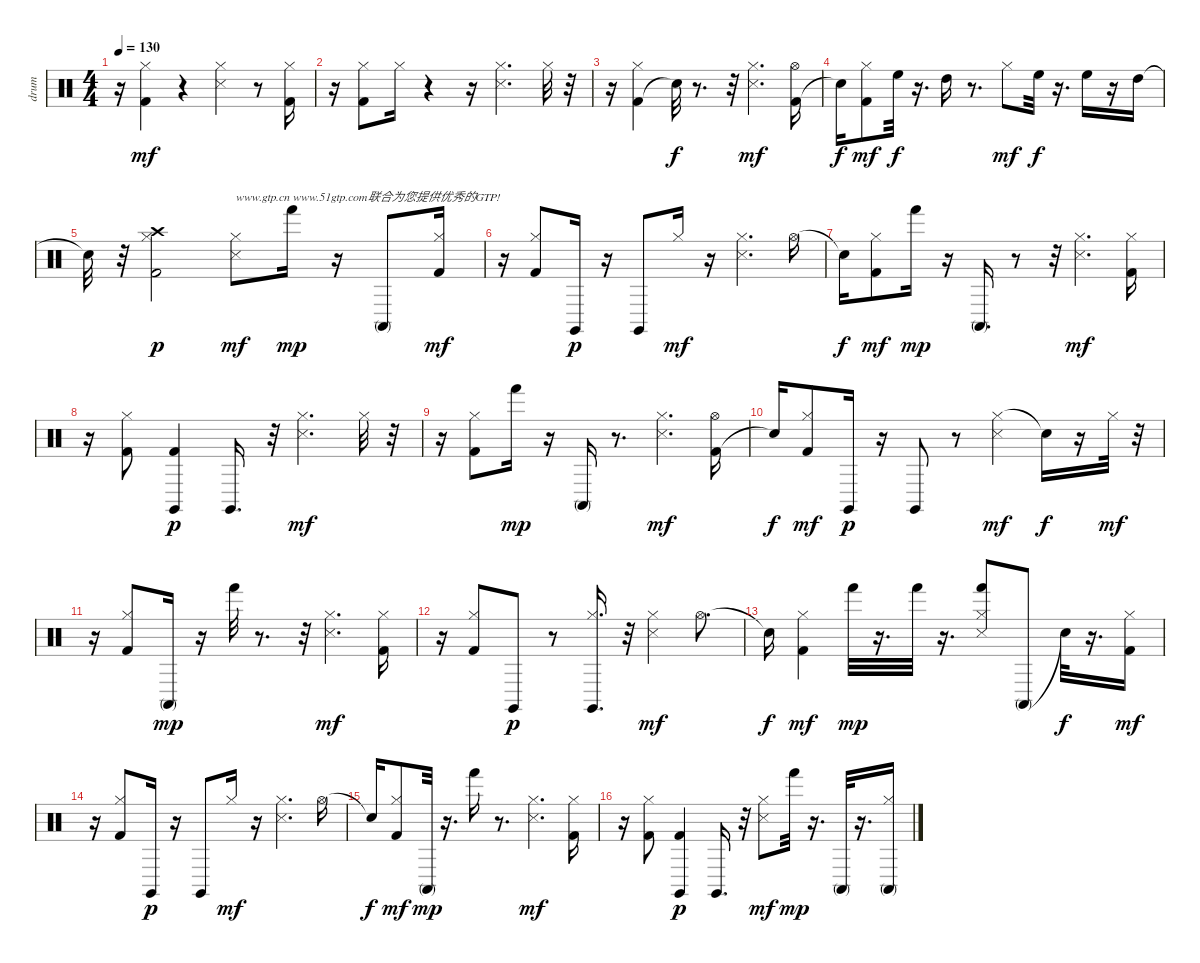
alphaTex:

\track ("drum" "drum") {instrument percussion}
\staff {score}
\articulation defaults
\ts (4 4)
\tempo 130
\clef neutral
\ks c
r.16{dy f} ("Kick (hit) 2" "Hi-Hat (closed)").4{dy mf} r.4 ("Hi-Hat (closed)" "Snare (side stick) 3").4 r.8 ("Kick (hit) 2" "Hi-Hat (closed)").16 |
r.16 ("Kick (hit) 2" "Hi-Hat (closed)").8 "Hi-Hat (closed)".16 r.4 r.16 ("Hi-Hat (closed)" "Snare (side stick) 3").4{d} "Hi-Hat (closed)".32 r.32 |
r.16 ("Kick (hit) 2" "Hi-Hat (closed)").4 "Snare (hit)"{t}.32{dy f} r.8{d} r.32 ("Hi-Hat (closed)" "Snare (side stick) 3").4{d dy mf} ("Kick (hit) 2" "Hi-Hat (open)").16 |
"Snare (hit)"{t}.16{dy f} ("Kick (hit) 2" "Hi-Hat (closed)").8{dy mf} "High Floor Tom (hit)".32{dy f} r.16{d} "High Tom (hit)".16 r.8{d} "Hi-Hat (closed)".8{dy mf} "High Floor Tom (hit)".32{dy f} r.16{d} "High Floor Tom (hit)".16 r.16 "High Tom (hit)".16 |
"Snare (hit)"{t}.32 r.32 ("Kick (hit) 2" "Hi-Hat (closed)" "Crash high (hit)").2{dy p} ("Hi-Hat (closed)" "Snare (side stick) 3").8{txt "www.gtp.cn www.51gtp.com联合为您提供优秀的GTP!" dy mf} "Hand (hit)".16{dy mp} r.16 "Conga high (mute)".8 ("Kick (hit) 2" "Hi-Hat (closed)").16{dy mf} |
r.16 ("Kick (hit) 2" "Hi-Hat (closed)").8 "Claves (hit)".16{dy p} r.16 "Claves (hit)".8 "Hi-Hat (closed)".16{dy mf} r.16 ("Snare (side stick) 3" "Hi-Hat (closed)").4{d} "Hi-Hat (open)".16 |
"Snare (hit)"{t}.16{dy f} ("Kick (hit) 2" "Hi-Hat (closed)").8{dy mf} "Hand (hit)".16{dy mp} r.16 "Conga high (mute)".16{d} r.8 r.32 ("Hi-Hat (closed)" "Snare (side stick) 3").4{d dy mf} ("Kick (hit) 2" "Hi-Hat (closed)").16 |
r.16 ("Kick (hit) 2" "Hi-Hat (closed)").8 ("Kick (hit) 2" "Claves (hit)").4{dy p} "Claves (hit)".16{d} r.32 ("Hi-Hat (closed)" "Snare (side stick) 3").4{d dy mf} "Hi-Hat (closed)".32 r.32 |
r.16 ("Hi-Hat (closed)" "Kick (hit) 2").8 "Hand (hit)".16{dy mp} r.16 "Conga high (mute)".16 r.8{d} ("Hi-Hat (closed)" "Snare (side stick) 3").4{d dy mf} ("Kick (hit) 2" "Hi-Hat (open)").16 |
"Snare (hit)"{t}.16{dy f} ("Kick (hit) 2" "Hi-Hat (closed)").8{dy mf} "Claves (hit)".16{dy p} r.16 "Claves (hit)".8 r.8 ("Hi-Hat (closed)" "Snare (side stick) 3").4{dy mf} "Snare (hit)"{t}.16{dy f} r.16 "Hi-Hat (closed)".32{dy mf} r.32 |
r.16 ("Kick (hit) 2" "Hi-Hat (closed)").8 "Conga high (mute)".16{dy mp} r.16 "Hand (hit)".32 r.8{d} r.32 ("Hi-Hat (closed)" "Snare (side stick) 3").4{d dy mf} ("Kick (hit) 2" "Hi-Hat (closed)").16 |
r.16 ("Kick (hit) 2" "Hi-Hat (closed)").8 "Claves (hit)".8{dy p} r.8 ("Hi-Hat (closed)" "Claves (hit)").16{d} r.32 ("Hi-Hat (closed)" "Snare (side stick) 3").4{dy mf} "Hi-Hat (open)".8{d} |
"Snare (hit)"{t}.16{dy f} ("Kick (hit) 2" "Hi-Hat (closed)").4{dy mf} "Hand (hit)".32{dy mp} r.16{d} "Hand (hit)".32 r.16{d} ("Snare (side stick) 3" "Hi-Hat (closed)" "Hand (hit)").8 "Conga high (mute)".8 "Snare (hit)"{t}.32{dy f} r.16{d} ("Kick (hit) 2" "Hi-Hat (closed)").16{dy mf} |
r.16 ("Kick (hit) 2" "Hi-Hat (closed)").8 "Claves (hit)".16{dy p} r.16 "Claves (hit)".8 "Hi-Hat (closed)".16{dy mf} r.16 ("Hi-Hat (closed)" "Snare (side stick) 3").4{d} "Hi-Hat (open)".16 |
"Snare (hit)"{t}.16{dy f} ("Kick (hit) 2" "Hi-Hat (closed)").8{dy mf} "Conga high (mute)".32{dy mp} r.16{d} "Hand (hit)".16 r.8{d} ("Hi-Hat (closed)" "Snare (side stick) 3").4{d dy mf} ("Hi-Hat (closed)" "Kick (hit) 2").16 |
r.16 ("Kick (hit) 2" "Hi-Hat (closed)").8 ("Kick (hit) 2" "Claves (hit)").4{dy p} "Claves (hit)".16{d} r.32 ("Hi-Hat (closed)" "Snare (side stick) 3").8{dy mf} "Hand (hit)".32{dy mp} r.16{d} "Conga high (mute)".32 r.16{d} ("Hi-Hat (closed)" "Conga high (mute)").16
